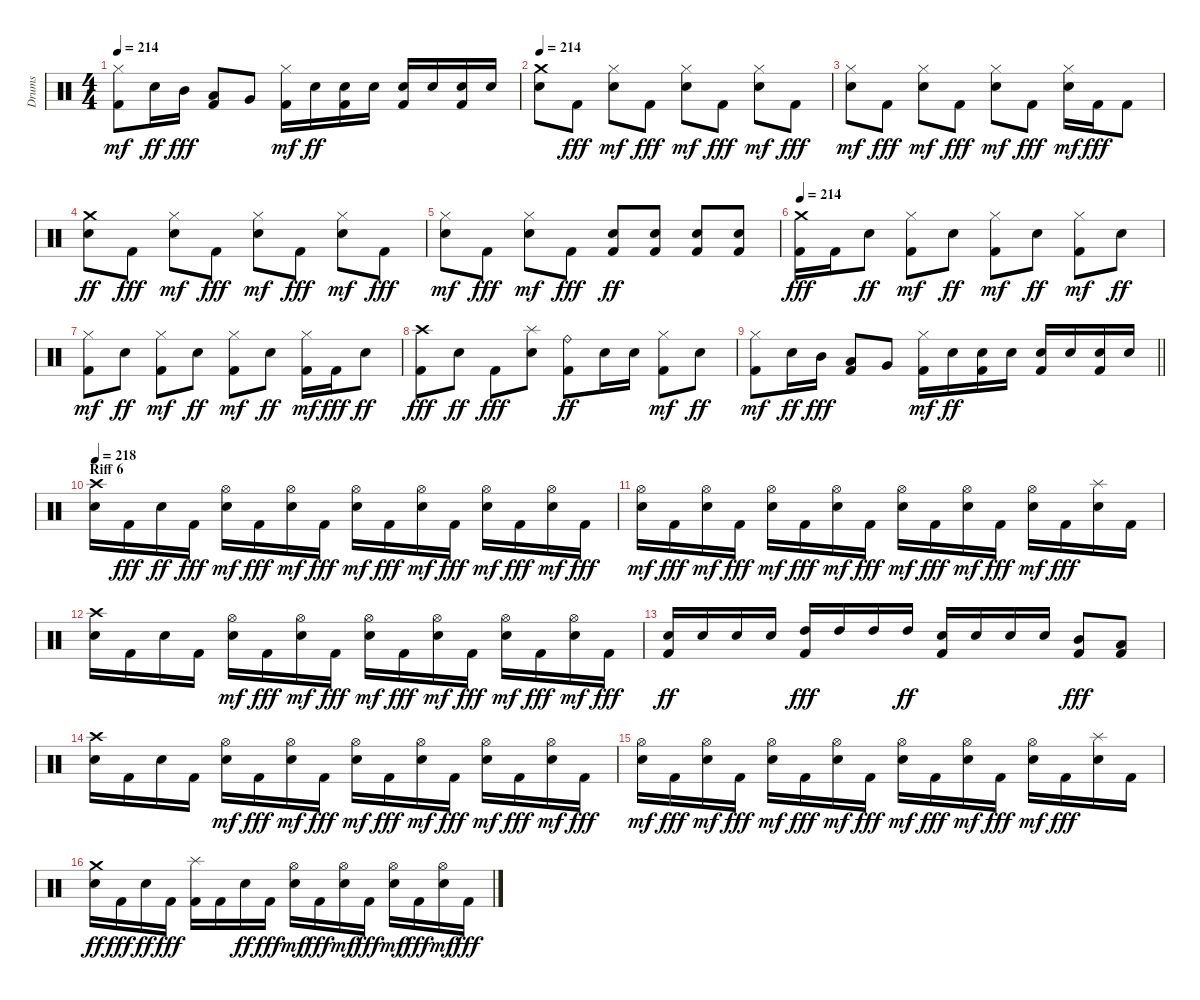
\track ("Drums" "Drums") {instrument percussion}
\staff {score}
\articulation defaults
\ts (4 4)
\tempo 214
\clef neutral
\ks c
("Kick (hit) 2" "Hi-Hat (closed)").8{dy mf} "Snare (hit) 2".16{dy ff} "Mid Tom (hit)".16{dy fff} ("Kick (hit) 2" "Low Tom (hit)").8 "Very Low Tom (hit)".8 ("Kick (hit) 2" "Hi-Hat (closed)").16{dy mf} "Snare (hit) 2".16{dy ff} ("Kick (hit) 2" "Snare (hit) 2").16 "Snare (hit) 2".16 ("Kick (hit) 2" "Snare (hit) 2").16 "Snare (hit) 2".16 ("Kick (hit) 2" "Snare (hit) 2").16 "Snare (hit) 2".16 |
\tempo 214
("Snare (hit) 2" "Crash medium (hit)").8 "Kick (hit) 2".8{dy fff} ("Snare (hit) 2" "Hi-Hat (closed)").8{dy mf} "Kick (hit) 2".8{dy fff} ("Snare (hit) 2" "Hi-Hat (closed)").8{dy mf} "Kick (hit) 2".8{dy fff} ("Snare (hit) 2" "Hi-Hat (closed)").8{dy mf} "Kick (hit) 2".8{dy fff} |
("Snare (hit) 2" "Hi-Hat (closed)").8{dy mf} "Kick (hit) 2".8{dy fff} ("Snare (hit) 2" "Hi-Hat (closed)").8{dy mf} "Kick (hit) 2".8{dy fff} ("Snare (hit) 2" "Hi-Hat (closed)").8{dy mf} "Kick (hit) 2".8{dy fff} ("Snare (hit) 2" "Hi-Hat (closed)").16{dy mf} "Kick (hit) 2".16{dy fff} "Kick (hit) 2".8 |
("Snare (hit) 2" "Crash medium (hit)").8{dy ff} "Kick (hit) 2".8{dy fff} ("Snare (hit) 2" "Hi-Hat (closed)").8{dy mf} "Kick (hit) 2".8{dy fff} ("Snare (hit) 2" "Hi-Hat (closed)").8{dy mf} "Kick (hit) 2".8{dy fff} ("Snare (hit) 2" "Hi-Hat (closed)").8{dy mf} "Kick (hit) 2".8{dy fff} |
("Snare (hit) 2" "Hi-Hat (closed)").8{dy mf} "Kick (hit) 2".8{dy fff} ("Snare (hit) 2" "Hi-Hat (closed)").8{dy mf} "Kick (hit) 2".8{dy fff} ("Kick (hit) 2" "Snare (hit) 2").8{dy ff} ("Kick (hit) 2" "Snare (hit) 2").8 ("Kick (hit) 2" "Snare (hit) 2").8 ("Kick (hit) 2" "Snare (hit) 2").8 |
\tempo 214
("Kick (hit) 2" "Crash medium (hit)").16{dy fff} "Kick (hit) 2".16 "Snare (hit) 2".8{dy ff} ("Kick (hit) 2" "Hi-Hat (closed)").8{dy mf} "Snare (hit) 2".8{dy ff} ("Kick (hit) 2" "Hi-Hat (closed)").8{dy mf} "Snare (hit) 2".8{dy ff} ("Kick (hit) 2" "Hi-Hat (closed)").8{dy mf} "Snare (hit) 2".8{dy ff} |
("Kick (hit) 2" "Hi-Hat (closed)").8{dy mf} "Snare (hit) 2".8{dy ff} ("Kick (hit) 2" "Hi-Hat (closed)").8{dy mf} "Snare (hit) 2".8{dy ff} ("Kick (hit) 2" "Hi-Hat (closed)").8{dy mf} "Snare (hit) 2".8{dy ff} ("Kick (hit) 2" "Hi-Hat (closed)").16{dy mf} "Kick (hit) 2".16{dy fff} "Snare (hit) 2".8{dy ff} |
("Kick (hit) 2" "Crash high (hit)").8{dy fff} "Snare (hit) 2".8{dy ff} "Kick (hit) 2".8{dy fff} ("Snare (hit) 2" "Splash (hit)").8 ("Kick (hit) 2" "Ride (bell)").8{dy ff} "Snare (hit) 2".16 "Snare (hit) 2".16 ("Kick (hit) 2" "Hi-Hat (closed)").8{dy mf} "Snare (hit) 2".8{dy ff} |
\barLineRight lightlight
("Kick (hit) 2" "Hi-Hat (closed)").8{dy mf} "Snare (hit) 2".16{dy ff} "Mid Tom (hit)".16{dy fff} ("Kick (hit) 2" "Low Tom (hit)").8 "Very Low Tom (hit)".8 ("Kick (hit) 2" "Hi-Hat (closed)").16{dy mf} "Snare (hit) 2".16{dy ff} ("Kick (hit) 2" "Snare (hit) 2").16 "Snare (hit) 2".16 ("Kick (hit) 2" "Snare (hit) 2").16 "Snare (hit) 2".16 ("Kick (hit) 2" "Snare (hit) 2").16 "Snare (hit) 2".16 |
\section ("" "Riff 6")
\tempo 218
("Snare (hit) 2" "Crash high (hit)").16 "Kick (hit) 2".16{dy fff} "Snare (hit) 2".16{dy ff} "Kick (hit) 2".16{dy fff} ("Snare (hit) 2" "Hi-Hat (open)").16{dy mf} "Kick (hit) 2".16{dy fff} ("Snare (hit) 2" "Hi-Hat (open)").16{dy mf} "Kick (hit) 2".16{dy fff} ("Snare (hit) 2" "Hi-Hat (open)").16{dy mf} "Kick (hit) 2".16{dy fff} ("Snare (hit) 2" "Hi-Hat (open)").16{dy mf} "Kick (hit) 2".16{dy fff} ("Snare (hit) 2" "Hi-Hat (open)").16{dy mf} "Kick (hit) 2".16{dy fff} ("Snare (hit) 2" "Hi-Hat (open)").16{dy mf} "Kick (hit) 2".16{dy fff} |
("Snare (hit) 2" "Hi-Hat (open)").16{dy mf} "Kick (hit) 2".16{dy fff} ("Snare (hit) 2" "Hi-Hat (open)").16{dy mf} "Kick (hit) 2".16{dy fff} ("Snare (hit) 2" "Hi-Hat (open)").16{dy mf} "Kick (hit) 2".16{dy fff} ("Snare (hit) 2" "Hi-Hat (open)").16{dy mf} "Kick (hit) 2".16{dy fff} ("Snare (hit) 2" "Hi-Hat (open)").16{dy mf} "Kick (hit) 2".16{dy fff} ("Snare (hit) 2" "Hi-Hat (open)").16{dy mf} "Kick (hit) 2".16{dy fff} ("Snare (hit) 2" "Hi-Hat (open)").16{dy mf} "Kick (hit) 2".16{dy fff} ("Snare (hit) 2" "Splash (hit)").16 "Kick (hit) 2".16 |
("Snare (hit) 2" "Crash high (hit)").16 "Kick (hit) 2".16 "Snare (hit) 2".16 "Kick (hit) 2".16 ("Snare (hit) 2" "Hi-Hat (open)").16{dy mf} "Kick (hit) 2".16{dy fff} ("Snare (hit) 2" "Hi-Hat (open)").16{dy mf} "Kick (hit) 2".16{dy fff} ("Snare (hit) 2" "Hi-Hat (open)").16{dy mf} "Kick (hit) 2".16{dy fff} ("Snare (hit) 2" "Hi-Hat (open)").16{dy mf} "Kick (hit) 2".16{dy fff} ("Snare (hit) 2" "Hi-Hat (open)").16{dy mf} "Kick (hit) 2".16{dy fff} ("Snare (hit) 2" "Hi-Hat (open)").16{dy mf} "Kick (hit) 2".16{dy fff} |
("Kick (hit) 2" "Snare (hit) 2").16{dy ff} "Snare (hit) 2".16 "Snare (hit) 2".16 "Snare (hit) 2".16 ("Kick (hit) 2" "High Tom (hit)").16{dy fff} "High Tom (hit)".16 "High Tom (hit)".16 "High Tom (hit)".16{dy ff} ("Kick (hit) 2" "Snare (hit) 2").16 "Snare (hit) 2".16 "Snare (hit) 2".16 "Snare (hit) 2".16 ("Kick (hit) 2" "Mid Tom (hit)").8{dy fff} ("Kick (hit) 2" "Low Tom (hit)").8 |
("Snare (hit) 2" "Crash high (hit)").16 "Kick (hit) 2".16 "Snare (hit) 2".16 "Kick (hit) 2".16 ("Snare (hit) 2" "Hi-Hat (open)").16{dy mf} "Kick (hit) 2".16{dy fff} ("Snare (hit) 2" "Hi-Hat (open)").16{dy mf} "Kick (hit) 2".16{dy fff} ("Snare (hit) 2" "Hi-Hat (open)").16{dy mf} "Kick (hit) 2".16{dy fff} ("Snare (hit) 2" "Hi-Hat (open)").16{dy mf} "Kick (hit) 2".16{dy fff} ("Snare (hit) 2" "Hi-Hat (open)").16{dy mf} "Kick (hit) 2".16{dy fff} ("Snare (hit) 2" "Hi-Hat (open)").16{dy mf} "Kick (hit) 2".16{dy fff} |
("Snare (hit) 2" "Hi-Hat (open)").16{dy mf} "Kick (hit) 2".16{dy fff} ("Snare (hit) 2" "Hi-Hat (open)").16{dy mf} "Kick (hit) 2".16{dy fff} ("Snare (hit) 2" "Hi-Hat (open)").16{dy mf} "Kick (hit) 2".16{dy fff} ("Snare (hit) 2" "Hi-Hat (open)").16{dy mf} "Kick (hit) 2".16{dy fff} ("Snare (hit) 2" "Hi-Hat (open)").16{dy mf} "Kick (hit) 2".16{dy fff} ("Snare (hit) 2" "Hi-Hat (open)").16{dy mf} "Kick (hit) 2".16{dy fff} ("Snare (hit) 2" "Hi-Hat (open)").16{dy mf} "Kick (hit) 2".16{dy fff} ("Snare (hit) 2" "Splash (hit)").16 "Kick (hit) 2".16 |
("Snare (hit) 2" "Crash medium (hit)").16{dy ff} "Kick (hit) 2".16{dy fff} "Snare (hit) 2".16{dy ff} "Kick (hit) 2".16{dy fff} ("Kick (hit) 2" "Splash (hit)").16 "Kick (hit) 2".16 "Snare (hit) 2".16{dy ff} "Kick (hit) 2".16{dy fff} ("Snare (hit) 2" "Hi-Hat (open)").16{dy mf} "Kick (hit) 2".16{dy fff} ("Snare (hit) 2" "Hi-Hat (open)").16{dy mf} "Kick (hit) 2".16{dy fff} ("Snare (hit) 2" "Hi-Hat (open)").16{dy mf} "Kick (hit) 2".16{dy fff} ("Snare (hit) 2" "Hi-Hat (open)").16{dy mf} "Kick (hit) 2".16{dy fff}
